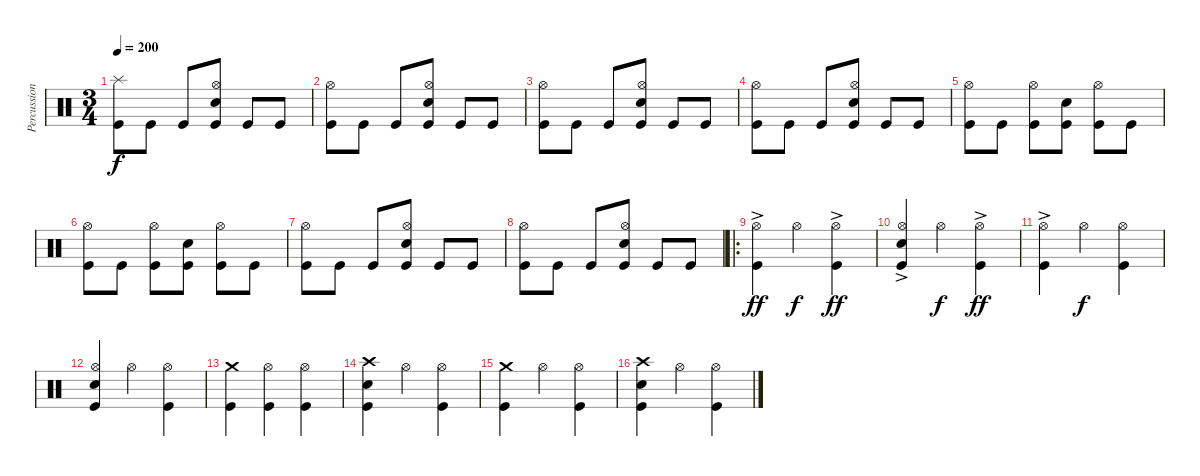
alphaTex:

\track ("Percussion" "Percussion") {instrument percussion}
\staff {score}
\articulation defaults
\ts (3 4)
\tempo 200
\clef neutral
\ks c
("Splash (hit)" "Kick (hit)").8{dy f} "Kick (hit)".8 "Kick (hit)".8 ("Hi-Hat (open)" "Snare (hit) 2" "Kick (hit)").8 "Kick (hit)".8 "Kick (hit)".8 |
("Hi-Hat (open)" "Kick (hit)").8 "Kick (hit)".8 "Kick (hit)".8 ("Hi-Hat (open)" "Snare (hit) 2" "Kick (hit)").8 "Kick (hit)".8 "Kick (hit)".8 |
("Hi-Hat (open)" "Kick (hit)").8 "Kick (hit)".8 "Kick (hit)".8 ("Hi-Hat (open)" "Snare (hit) 2" "Kick (hit)").8 "Kick (hit)".8 "Kick (hit)".8 |
("Hi-Hat (open)" "Kick (hit)").8 "Kick (hit)".8 "Kick (hit)".8 ("Hi-Hat (open)" "Snare (hit) 2" "Kick (hit)").8 "Kick (hit)".8 "Kick (hit)".8 |
("Hi-Hat (open)" "Kick (hit)").8 "Kick (hit)".8 ("Hi-Hat (open)" "Kick (hit)").8 ("Snare (hit) 2" "Kick (hit)").8 ("Hi-Hat (open)" "Kick (hit)").8 "Kick (hit)".8 |
("Hi-Hat (open)" "Kick (hit)").8 "Kick (hit)".8 ("Hi-Hat (open)" "Kick (hit)").8 ("Snare (hit) 2" "Kick (hit)").8 ("Hi-Hat (open)" "Kick (hit)").8 "Kick (hit)".8 |
("Hi-Hat (open)" "Kick (hit)").8 "Kick (hit)".8 "Kick (hit)".8 ("Hi-Hat (open)" "Snare (hit) 2" "Kick (hit)").8 "Kick (hit)".8 "Kick (hit)".8 |
("Hi-Hat (open)" "Kick (hit)").8 "Kick (hit)".8 "Kick (hit)".8 ("Hi-Hat (open)" "Snare (hit) 2" "Kick (hit)").8 "Kick (hit)".8 "Kick (hit)".8 |
\ro
("Hi-Hat (open)"{ac} "Kick (hit)").4{dy ff} "Hi-Hat (open)".4{dy f} ("Hi-Hat (open)"{ac} "Kick (hit)").4{dy ff} |
("Hi-Hat (open)"{ac} "Snare (hit) 2" "Kick (hit)").4 "Hi-Hat (open)".4{dy f} ("Hi-Hat (open)"{ac} "Kick (hit)").4{dy ff} |
("Hi-Hat (open)"{ac} "Kick (hit)").4 "Hi-Hat (open)".4{dy f} ("Hi-Hat (open)" "Kick (hit)").4 |
("Hi-Hat (open)" "Snare (hit) 2" "Kick (hit)").4 "Hi-Hat (open)".4 ("Hi-Hat (open)" "Kick (hit)").4 |
("Crash medium (hit)" "Kick (hit)").4 ("Hi-Hat (open)" "Kick (hit)").4 ("Hi-Hat (open)" "Kick (hit)").4 |
("Crash high (hit)" "Snare (hit) 2" "Kick (hit)").4 "Hi-Hat (open)".4 ("Hi-Hat (open)" "Kick (hit)").4 |
("Crash medium (hit)" "Kick (hit)").4 "Hi-Hat (open)".4 ("Hi-Hat (open)" "Kick (hit)").4 |
("Crash high (hit)" "Snare (hit) 2" "Kick (hit)").4 "Hi-Hat (open)".4 ("Hi-Hat (open)" "Kick (hit)").4
